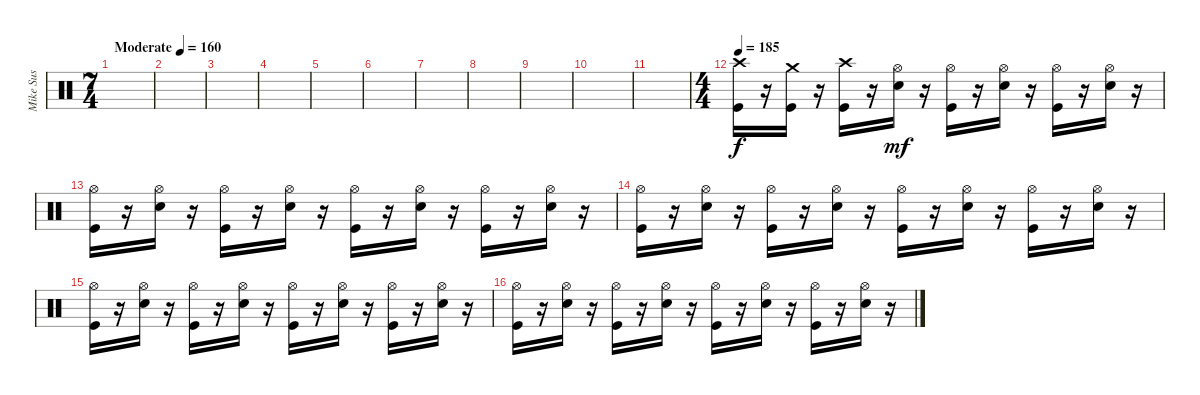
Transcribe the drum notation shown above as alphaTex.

\track ("Mike Sus" "Mike Sus") {instrument percussion}
\staff {score}
\articulation defaults
\ts (7 4)
\tempo (160 "Moderate")
\clef neutral
\ks c
|
|
|
|
|
|
|
|
|
|
|
\ts (4 4)
\tempo 185
("Kick (hit)" "Crash high (hit)").16 r.16 ("Kick (hit)" "Crash medium (hit)").16 r.16 ("Kick (hit)" "Crash high (hit)").16 r.16 ("Snare (hit) 2" "Hi-Hat (open)").16{dy mf} r.16 ("Kick (hit)" "Hi-Hat (open)").16 r.16 ("Snare (hit) 2" "Hi-Hat (open)").16 r.16 ("Kick (hit)" "Hi-Hat (open)").16 r.16 ("Snare (hit) 2" "Hi-Hat (open)").16 r.16 |
("Kick (hit)" "Hi-Hat (open)").16 r.16 ("Snare (hit) 2" "Hi-Hat (open)").16 r.16 ("Kick (hit)" "Hi-Hat (open)").16 r.16 ("Snare (hit) 2" "Hi-Hat (open)").16 r.16 ("Kick (hit)" "Hi-Hat (open)").16 r.16 ("Snare (hit) 2" "Hi-Hat (open)").16 r.16 ("Kick (hit)" "Hi-Hat (open)").16 r.16 ("Snare (hit) 2" "Hi-Hat (open)").16 r.16 |
("Kick (hit)" "Hi-Hat (open)").16 r.16 ("Snare (hit) 2" "Hi-Hat (open)").16 r.16 ("Kick (hit)" "Hi-Hat (open)").16 r.16 ("Snare (hit) 2" "Hi-Hat (open)").16 r.16 ("Kick (hit)" "Hi-Hat (open)").16 r.16 ("Snare (hit) 2" "Hi-Hat (open)").16 r.16 ("Kick (hit)" "Hi-Hat (open)").16 r.16 ("Snare (hit) 2" "Hi-Hat (open)").16 r.16 |
("Kick (hit)" "Hi-Hat (open)").16 r.16 ("Snare (hit) 2" "Hi-Hat (open)").16 r.16 ("Kick (hit)" "Hi-Hat (open)").16 r.16 ("Snare (hit) 2" "Hi-Hat (open)").16 r.16 ("Kick (hit)" "Hi-Hat (open)").16 r.16 ("Snare (hit) 2" "Hi-Hat (open)").16 r.16 ("Kick (hit)" "Hi-Hat (open)").16 r.16 ("Snare (hit) 2" "Hi-Hat (open)").16 r.16 |
("Kick (hit)" "Hi-Hat (open)").16 r.16 ("Snare (hit) 2" "Hi-Hat (open)").16 r.16 ("Kick (hit)" "Hi-Hat (open)").16 r.16 ("Snare (hit) 2" "Hi-Hat (open)").16 r.16 ("Kick (hit)" "Hi-Hat (open)").16 r.16 ("Snare (hit) 2" "Hi-Hat (open)").16 r.16 ("Kick (hit)" "Hi-Hat (open)").16 r.16 ("Snare (hit) 2" "Hi-Hat (open)").16 r.16
